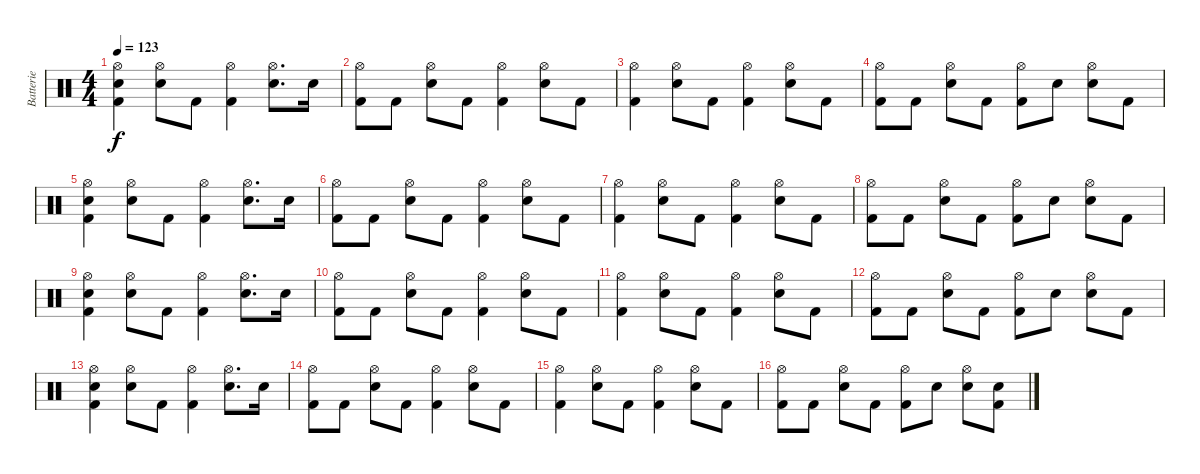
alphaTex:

\track ("Batterie" "Batterie") {instrument percussion}
\staff {score}
\articulation defaults
\ts (4 4)
\tempo 123
\clef neutral
\ks c
("Hi-Hat (open)" "Snare (hit) 2" "Kick (hit) 2").4{dy f} ("Hi-Hat (open)" "Snare (hit) 2").8 "Kick (hit) 2".8 ("Hi-Hat (open)" "Kick (hit) 2").4 ("Hi-Hat (open)" "Snare (hit) 2").8{d} "Snare (hit) 2".16 |
("Hi-Hat (open)" "Kick (hit) 2").8 "Kick (hit) 2".8 ("Hi-Hat (open)" "Snare (hit) 2").8 "Kick (hit) 2".8 ("Hi-Hat (open)" "Kick (hit) 2").4 ("Hi-Hat (open)" "Snare (hit) 2").8 "Kick (hit) 2".8 |
("Hi-Hat (open)" "Kick (hit) 2").4 ("Hi-Hat (open)" "Snare (hit) 2").8 "Kick (hit) 2".8 ("Hi-Hat (open)" "Kick (hit) 2").4 ("Hi-Hat (open)" "Snare (hit) 2").8 "Kick (hit) 2".8 |
("Hi-Hat (open)" "Kick (hit) 2").8 "Kick (hit) 2".8 ("Hi-Hat (open)" "Snare (hit) 2").8 "Kick (hit) 2".8 ("Hi-Hat (open)" "Kick (hit) 2").8 "Snare (hit) 2".8 ("Hi-Hat (open)" "Snare (hit) 2").8 "Kick (hit) 2".8 |
("Hi-Hat (open)" "Snare (hit) 2" "Kick (hit) 2").4 ("Hi-Hat (open)" "Snare (hit) 2").8 "Kick (hit) 2".8 ("Hi-Hat (open)" "Kick (hit) 2").4 ("Hi-Hat (open)" "Snare (hit) 2").8{d} "Snare (hit) 2".16 |
("Hi-Hat (open)" "Kick (hit) 2").8 "Kick (hit) 2".8 ("Hi-Hat (open)" "Snare (hit) 2").8 "Kick (hit) 2".8 ("Hi-Hat (open)" "Kick (hit) 2").4 ("Hi-Hat (open)" "Snare (hit) 2").8 "Kick (hit) 2".8 |
("Hi-Hat (open)" "Kick (hit) 2").4 ("Hi-Hat (open)" "Snare (hit) 2").8 "Kick (hit) 2".8 ("Hi-Hat (open)" "Kick (hit) 2").4 ("Hi-Hat (open)" "Snare (hit) 2").8 "Kick (hit) 2".8 |
("Hi-Hat (open)" "Kick (hit) 2").8 "Kick (hit) 2".8 ("Hi-Hat (open)" "Snare (hit) 2").8 "Kick (hit) 2".8 ("Hi-Hat (open)" "Kick (hit) 2").8 "Snare (hit) 2".8 ("Hi-Hat (open)" "Snare (hit) 2").8 "Kick (hit) 2".8 |
("Hi-Hat (open)" "Snare (hit) 2" "Kick (hit) 2").4 ("Hi-Hat (open)" "Snare (hit) 2").8 "Kick (hit) 2".8 ("Hi-Hat (open)" "Kick (hit) 2").4 ("Hi-Hat (open)" "Snare (hit) 2").8{d} "Snare (hit) 2".16 |
("Hi-Hat (open)" "Kick (hit) 2").8 "Kick (hit) 2".8 ("Hi-Hat (open)" "Snare (hit) 2").8 "Kick (hit) 2".8 ("Hi-Hat (open)" "Kick (hit) 2").4 ("Hi-Hat (open)" "Snare (hit) 2").8 "Kick (hit) 2".8 |
("Hi-Hat (open)" "Kick (hit) 2").4 ("Hi-Hat (open)" "Snare (hit) 2").8 "Kick (hit) 2".8 ("Hi-Hat (open)" "Kick (hit) 2").4 ("Hi-Hat (open)" "Snare (hit) 2").8 "Kick (hit) 2".8 |
("Hi-Hat (open)" "Kick (hit) 2").8 "Kick (hit) 2".8 ("Hi-Hat (open)" "Snare (hit) 2").8 "Kick (hit) 2".8 ("Hi-Hat (open)" "Kick (hit) 2").8 "Snare (hit) 2".8 ("Hi-Hat (open)" "Snare (hit) 2").8 "Kick (hit) 2".8 |
("Hi-Hat (open)" "Snare (hit) 2" "Kick (hit) 2").4 ("Hi-Hat (open)" "Snare (hit) 2").8 "Kick (hit) 2".8 ("Hi-Hat (open)" "Kick (hit) 2").4 ("Hi-Hat (open)" "Snare (hit) 2").8{d} "Snare (hit) 2".16 |
("Hi-Hat (open)" "Kick (hit) 2").8 "Kick (hit) 2".8 ("Hi-Hat (open)" "Snare (hit) 2").8 "Kick (hit) 2".8 ("Hi-Hat (open)" "Kick (hit) 2").4 ("Hi-Hat (open)" "Snare (hit) 2").8 "Kick (hit) 2".8 |
("Hi-Hat (open)" "Kick (hit) 2").4 ("Hi-Hat (open)" "Snare (hit) 2").8 "Kick (hit) 2".8 ("Hi-Hat (open)" "Kick (hit) 2").4 ("Hi-Hat (open)" "Snare (hit) 2").8 "Kick (hit) 2".8 |
("Hi-Hat (open)" "Kick (hit) 2").8 "Kick (hit) 2".8 ("Hi-Hat (open)" "Snare (hit) 2").8 "Kick (hit) 2".8 ("Hi-Hat (open)" "Kick (hit) 2").8 "Snare (hit) 2".8 ("Hi-Hat (open)" "Snare (hit) 2").8 ("Snare (hit) 2" "Kick (hit) 2").8
